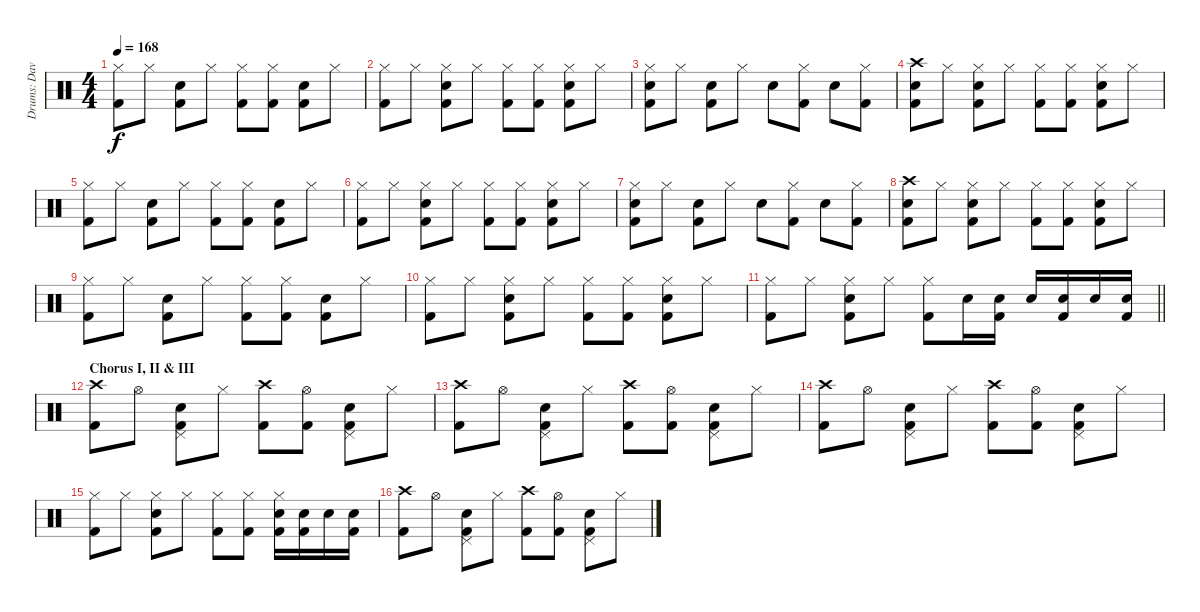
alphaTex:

\track ("Drums: Dave" "Drums: Dav") {instrument percussion}
\staff {score}
\articulation defaults
\ts (4 4)
\tempo 168
\clef neutral
\ks c
("Hi-Hat (closed)" "Kick (hit) 2").8{dy f} "Hi-Hat (closed)".8 ("Snare (hit) 2" "Kick (hit) 2").8 "Hi-Hat (closed)".8 ("Hi-Hat (closed)" "Kick (hit) 2").8 ("Hi-Hat (closed)" "Kick (hit) 2").8 ("Snare (hit) 2" "Kick (hit) 2").8 "Hi-Hat (closed)".8 |
("Hi-Hat (closed)" "Kick (hit) 2").8 "Hi-Hat (closed)".8 ("Hi-Hat (closed)" "Snare (hit) 2" "Kick (hit) 2").8 "Hi-Hat (closed)".8 ("Hi-Hat (closed)" "Kick (hit) 2").8 ("Hi-Hat (closed)" "Kick (hit) 2").8 ("Hi-Hat (closed)" "Snare (hit) 2" "Kick (hit) 2").8 "Hi-Hat (closed)".8 |
("Hi-Hat (closed)" "Snare (hit) 2" "Kick (hit) 2").8 "Hi-Hat (closed)".8 ("Snare (hit) 2" "Kick (hit) 2").8 "Hi-Hat (closed)".8 "Snare (hit) 2".8 ("Hi-Hat (closed)" "Kick (hit) 2").8 "Snare (hit) 2".8 ("Hi-Hat (closed)" "Kick (hit) 2").8 |
("Crash high (hit)" "Snare (hit) 2" "Kick (hit) 2").8 "Hi-Hat (closed)".8 ("Hi-Hat (closed)" "Snare (hit) 2" "Kick (hit) 2").8 "Hi-Hat (closed)".8 ("Hi-Hat (closed)" "Kick (hit) 2").8 ("Hi-Hat (closed)" "Kick (hit) 2").8 ("Hi-Hat (closed)" "Snare (hit) 2" "Kick (hit) 2").8 "Hi-Hat (closed)".8 |
("Hi-Hat (closed)" "Kick (hit) 2").8 "Hi-Hat (closed)".8 ("Snare (hit) 2" "Kick (hit) 2").8 "Hi-Hat (closed)".8 ("Hi-Hat (closed)" "Kick (hit) 2").8 ("Hi-Hat (closed)" "Kick (hit) 2").8 ("Snare (hit) 2" "Kick (hit) 2").8 "Hi-Hat (closed)".8 |
("Hi-Hat (closed)" "Kick (hit) 2").8 "Hi-Hat (closed)".8 ("Hi-Hat (closed)" "Snare (hit) 2" "Kick (hit) 2").8 "Hi-Hat (closed)".8 ("Hi-Hat (closed)" "Kick (hit) 2").8 ("Hi-Hat (closed)" "Kick (hit) 2").8 ("Hi-Hat (closed)" "Snare (hit) 2" "Kick (hit) 2").8 "Hi-Hat (closed)".8 |
("Hi-Hat (closed)" "Snare (hit) 2" "Kick (hit) 2").8 "Hi-Hat (closed)".8 ("Snare (hit) 2" "Kick (hit) 2").8 "Hi-Hat (closed)".8 "Snare (hit) 2".8 ("Hi-Hat (closed)" "Kick (hit) 2").8 "Snare (hit) 2".8 ("Hi-Hat (closed)" "Kick (hit) 2").8 |
("Crash high (hit)" "Snare (hit) 2" "Kick (hit) 2").8 "Hi-Hat (closed)".8 ("Hi-Hat (closed)" "Snare (hit) 2" "Kick (hit) 2").8 "Hi-Hat (closed)".8 ("Hi-Hat (closed)" "Kick (hit) 2").8 ("Hi-Hat (closed)" "Kick (hit) 2").8 ("Hi-Hat (closed)" "Snare (hit) 2" "Kick (hit) 2").8 "Hi-Hat (closed)".8 |
("Hi-Hat (closed)" "Kick (hit) 2").8 "Hi-Hat (closed)".8 ("Snare (hit) 2" "Kick (hit) 2").8 "Hi-Hat (closed)".8 ("Hi-Hat (closed)" "Kick (hit) 2").8 ("Hi-Hat (closed)" "Kick (hit) 2").8 ("Snare (hit) 2" "Kick (hit) 2").8 "Hi-Hat (closed)".8 |
("Hi-Hat (closed)" "Kick (hit) 2").8 "Hi-Hat (closed)".8 ("Hi-Hat (closed)" "Snare (hit) 2" "Kick (hit) 2").8 "Hi-Hat (closed)".8 ("Hi-Hat (closed)" "Kick (hit) 2").8 ("Hi-Hat (closed)" "Kick (hit) 2").8 ("Hi-Hat (closed)" "Snare (hit) 2" "Kick (hit) 2").8 "Hi-Hat (closed)".8 |
\barLineRight lightlight
("Hi-Hat (closed)" "Kick (hit) 2").8 "Hi-Hat (closed)".8 ("Hi-Hat (closed)" "Snare (hit) 2" "Kick (hit) 2").8 "Hi-Hat (closed)".8 ("Hi-Hat (closed)" "Kick (hit) 2").8 "Snare (hit) 2".16 ("Snare (hit) 2" "Kick (hit) 2").16 "Snare (hit) 2".16 ("Snare (hit) 2" "Kick (hit) 2").16 "Snare (hit) 2".16 ("Snare (hit) 2" "Kick (hit) 2").16 |
\section ("" "Chorus I, II & III")
("Crash high (hit)" "Kick (hit) 2").8 "Hi-Hat (open)".8 ("Pedal Hi-Hat (hit)" "Snare (hit) 2" "Kick (hit) 2").8 "Hi-Hat (closed)".8 ("Crash high (hit)" "Kick (hit) 2").8 ("Hi-Hat (open)" "Kick (hit) 2").8 ("Pedal Hi-Hat (hit)" "Snare (hit) 2" "Kick (hit) 2").8 "Hi-Hat (closed)".8 |
("Crash high (hit)" "Kick (hit) 2").8 "Hi-Hat (open)".8 ("Pedal Hi-Hat (hit)" "Snare (hit) 2" "Kick (hit) 2").8 "Hi-Hat (closed)".8 ("Crash high (hit)" "Kick (hit) 2").8 ("Hi-Hat (open)" "Kick (hit) 2").8 ("Pedal Hi-Hat (hit)" "Snare (hit) 2" "Kick (hit) 2").8 "Hi-Hat (closed)".8 |
("Crash high (hit)" "Kick (hit) 2").8 "Hi-Hat (open)".8 ("Pedal Hi-Hat (hit)" "Snare (hit) 2" "Kick (hit) 2").8 "Hi-Hat (closed)".8 ("Crash high (hit)" "Kick (hit) 2").8 ("Hi-Hat (open)" "Kick (hit) 2").8 ("Pedal Hi-Hat (hit)" "Snare (hit) 2" "Kick (hit) 2").8 "Hi-Hat (closed)".8 |
("Hi-Hat (closed)" "Kick (hit) 2").8 "Hi-Hat (closed)".8 ("Hi-Hat (closed)" "Snare (hit) 2" "Kick (hit) 2").8 "Hi-Hat (closed)".8 ("Hi-Hat (closed)" "Kick (hit) 2").8 ("Hi-Hat (closed)" "Kick (hit) 2").8 ("Hi-Hat (closed)" "Snare (hit) 2" "Kick (hit) 2").16 ("Snare (hit) 2" "Kick (hit) 2").16 "Snare (hit) 2".16 ("Snare (hit) 2" "Kick (hit) 2").16 |
("Crash high (hit)" "Kick (hit) 2").8 "Hi-Hat (open)".8 ("Pedal Hi-Hat (hit)" "Snare (hit) 2" "Kick (hit) 2").8 "Hi-Hat (closed)".8 ("Crash high (hit)" "Kick (hit) 2").8 ("Hi-Hat (open)" "Kick (hit) 2").8 ("Pedal Hi-Hat (hit)" "Snare (hit) 2" "Kick (hit) 2").8 "Hi-Hat (closed)".8
